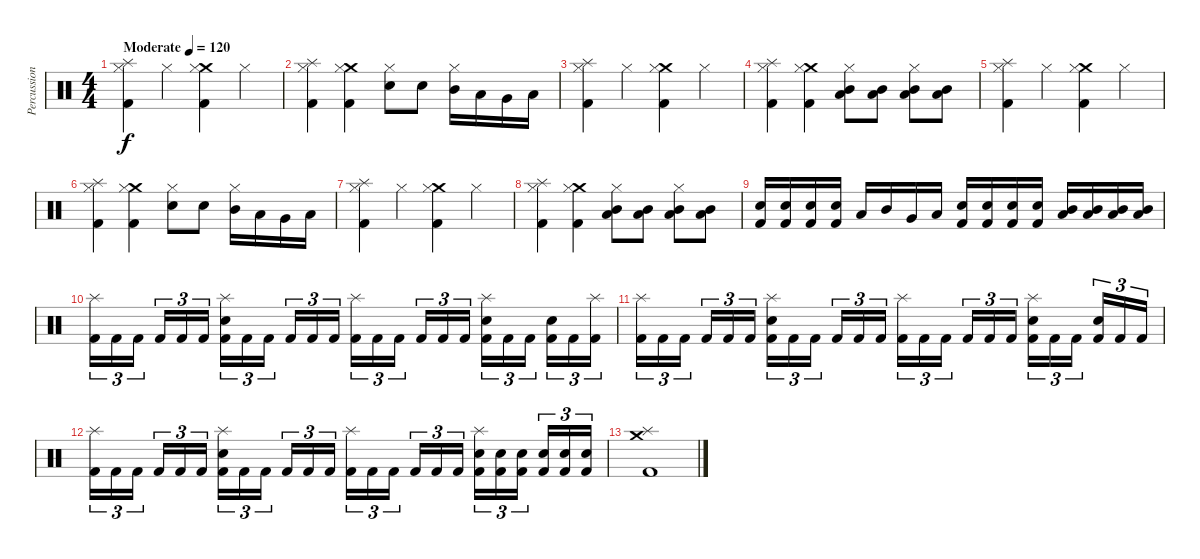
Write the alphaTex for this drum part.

\track ("Percussion" "Percussion") {instrument percussion}
\staff {score}
\articulation defaults
\ts (4 4)
\tempo (120 "Moderate")
\clef neutral
\ks c
("Splash (hit)" "Kick (hit) 2" "Hi-Hat (closed)").4{dy f} "Hi-Hat (closed)".4 ("Crash medium (hit)" "Kick (hit) 2" "Hi-Hat (closed)").4 "Hi-Hat (closed)".4 |
("Splash (hit)" "Kick (hit) 2" "Hi-Hat (closed)").4 ("Crash medium (hit)" "Kick (hit) 2" "Hi-Hat (closed)").4 ("Snare (hit) 2" "Hi-Hat (closed)").8 "Snare (hit) 2".8 ("Mid Tom (hit)" "Hi-Hat (closed)").16 "Low Tom (hit)".16 "Very Low Tom (hit)".16 "Low Floor Tom (hit)".16 |
("Splash (hit)" "Kick (hit) 2" "Hi-Hat (closed)").4 "Hi-Hat (closed)".4 ("Crash medium (hit)" "Kick (hit) 2" "Hi-Hat (closed)").4 "Hi-Hat (closed)".4 |
("Splash (hit)" "Kick (hit) 2" "Hi-Hat (closed)").4 ("Crash medium (hit)" "Kick (hit) 2" "Hi-Hat (closed)").4 ("Mid Tom (hit)" "Low Tom (hit)" "Hi-Hat (closed)").8 ("Mid Tom (hit)" "Low Tom (hit)").8 ("Mid Tom (hit)" "Low Tom (hit)" "Hi-Hat (closed)").8 ("Mid Tom (hit)" "Low Tom (hit)").8 |
("Splash (hit)" "Kick (hit) 2" "Hi-Hat (closed)").4 "Hi-Hat (closed)".4 ("Crash medium (hit)" "Kick (hit) 2" "Hi-Hat (closed)").4 "Hi-Hat (closed)".4 |
("Splash (hit)" "Kick (hit) 2" "Hi-Hat (closed)").4 ("Crash medium (hit)" "Kick (hit) 2" "Hi-Hat (closed)").4 ("Snare (hit) 2" "Hi-Hat (closed)").8 "Snare (hit) 2".8 ("Mid Tom (hit)" "Hi-Hat (closed)").16 "Low Tom (hit)".16 "Very Low Tom (hit)".16 "Low Floor Tom (hit)".16 |
("Splash (hit)" "Kick (hit) 2" "Hi-Hat (closed)").4 "Hi-Hat (closed)".4 ("Crash medium (hit)" "Kick (hit) 2" "Hi-Hat (closed)").4 "Hi-Hat (closed)".4 |
("Splash (hit)" "Kick (hit) 2" "Hi-Hat (closed)").4 ("Crash medium (hit)" "Kick (hit) 2" "Hi-Hat (closed)").4 ("Mid Tom (hit)" "Low Tom (hit)" "Hi-Hat (closed)").8 ("Mid Tom (hit)" "Low Tom (hit)").8 ("Mid Tom (hit)" "Low Tom (hit)" "Hi-Hat (closed)").8 ("Mid Tom (hit)" "Low Tom (hit)").8 |
("Snare (hit) 2" "Kick (hit) 2").16 ("Snare (hit) 2" "Kick (hit) 2").16 ("Snare (hit) 2" "Kick (hit) 2").16 ("Snare (hit) 2" "Kick (hit) 2").16 "Low Tom (hit)".16 "Mid Tom (hit)".16 "Very Low Tom (hit)".16 "Low Tom (hit)".16 ("Snare (hit) 2" "Kick (hit) 2").16 ("Snare (hit) 2" "Kick (hit) 2").16 ("Snare (hit) 2" "Kick (hit) 2").16 ("Snare (hit) 2" "Kick (hit) 2").16 ("Mid Tom (hit)" "Low Tom (hit)").16 ("Mid Tom (hit)" "Low Tom (hit)").16 ("Mid Tom (hit)" "Low Tom (hit)").16 ("Mid Tom (hit)" "Low Tom (hit)").16 |
("Splash (hit)" "Kick (hit) 2").16{tu (3 2)} "Kick (hit) 2".16{tu (3 2)} "Kick (hit) 2".16{tu (3 2) beam splitsecondary} "Kick (hit) 2".16{tu (3 2)} "Kick (hit) 2".16{tu (3 2)} "Kick (hit) 2".16{tu (3 2)} ("Splash (hit)" "Snare (hit) 2" "Kick (hit) 2").16{tu (3 2)} "Kick (hit) 2".16{tu (3 2)} "Kick (hit) 2".16{tu (3 2) beam splitsecondary} "Kick (hit) 2".16{tu (3 2)} "Kick (hit) 2".16{tu (3 2)} "Kick (hit) 2".16{tu (3 2)} ("Splash (hit)" "Kick (hit) 2").16{tu (3 2)} "Kick (hit) 2".16{tu (3 2)} "Kick (hit) 2".16{tu (3 2) beam splitsecondary} "Kick (hit) 2".16{tu (3 2)} "Kick (hit) 2".16{tu (3 2)} "Kick (hit) 2".16{tu (3 2)} ("Splash (hit)" "Snare (hit) 2" "Kick (hit) 2").16{tu (3 2)} "Kick (hit) 2".16{tu (3 2)} "Kick (hit) 2".16{tu (3 2) beam splitsecondary} ("Snare (hit) 2" "Kick (hit) 2").16{tu (3 2)} "Kick (hit) 2".16{tu (3 2)} ("Splash (hit)" "Kick (hit) 2").16{tu (3 2)} |
("Splash (hit)" "Kick (hit) 2").16{tu (3 2)} "Kick (hit) 2".16{tu (3 2)} "Kick (hit) 2".16{tu (3 2) beam splitsecondary} "Kick (hit) 2".16{tu (3 2)} "Kick (hit) 2".16{tu (3 2)} "Kick (hit) 2".16{tu (3 2)} ("Splash (hit)" "Snare (hit) 2" "Kick (hit) 2").16{tu (3 2)} "Kick (hit) 2".16{tu (3 2)} "Kick (hit) 2".16{tu (3 2) beam splitsecondary} "Kick (hit) 2".16{tu (3 2)} "Kick (hit) 2".16{tu (3 2)} "Kick (hit) 2".16{tu (3 2)} ("Splash (hit)" "Kick (hit) 2").16{tu (3 2)} "Kick (hit) 2".16{tu (3 2)} "Kick (hit) 2".16{tu (3 2) beam splitsecondary} "Kick (hit) 2".16{tu (3 2)} "Kick (hit) 2".16{tu (3 2)} "Kick (hit) 2".16{tu (3 2)} ("Splash (hit)" "Snare (hit) 2" "Kick (hit) 2").16{tu (3 2)} "Kick (hit) 2".16{tu (3 2)} "Kick (hit) 2".16{tu (3 2) beam splitsecondary} ("Snare (hit) 2" "Kick (hit) 2").16{tu (3 2)} "Kick (hit) 2".16{tu (3 2)} "Kick (hit) 2".16{tu (3 2)} |
("Splash (hit)" "Kick (hit) 2").16{tu (3 2)} "Kick (hit) 2".16{tu (3 2)} "Kick (hit) 2".16{tu (3 2) beam splitsecondary} "Kick (hit) 2".16{tu (3 2)} "Kick (hit) 2".16{tu (3 2)} "Kick (hit) 2".16{tu (3 2)} ("Splash (hit)" "Snare (hit) 2" "Kick (hit) 2").16{tu (3 2)} "Kick (hit) 2".16{tu (3 2)} "Kick (hit) 2".16{tu (3 2) beam splitsecondary} "Kick (hit) 2".16{tu (3 2)} "Kick (hit) 2".16{tu (3 2)} "Kick (hit) 2".16{tu (3 2)} ("Splash (hit)" "Kick (hit) 2").16{tu (3 2)} "Kick (hit) 2".16{tu (3 2)} "Kick (hit) 2".16{tu (3 2) beam splitsecondary} "Kick (hit) 2".16{tu (3 2)} "Kick (hit) 2".16{tu (3 2)} "Kick (hit) 2".16{tu (3 2)} ("Splash (hit)" "Snare (hit) 2" "Kick (hit) 2").16{tu (3 2)} ("Snare (hit) 2" "Kick (hit) 2").16{tu (3 2)} ("Snare (hit) 2" "Kick (hit) 2").16{tu (3 2) beam splitsecondary} ("Snare (hit) 2" "Kick (hit) 2").16{tu (3 2)} ("Snare (hit) 2" "Kick (hit) 2").16{tu (3 2)} ("Snare (hit) 2" "Kick (hit) 2").16{tu (3 2)} |
("Crash medium (hit)" "Splash (hit)" "Kick (hit) 2").1
